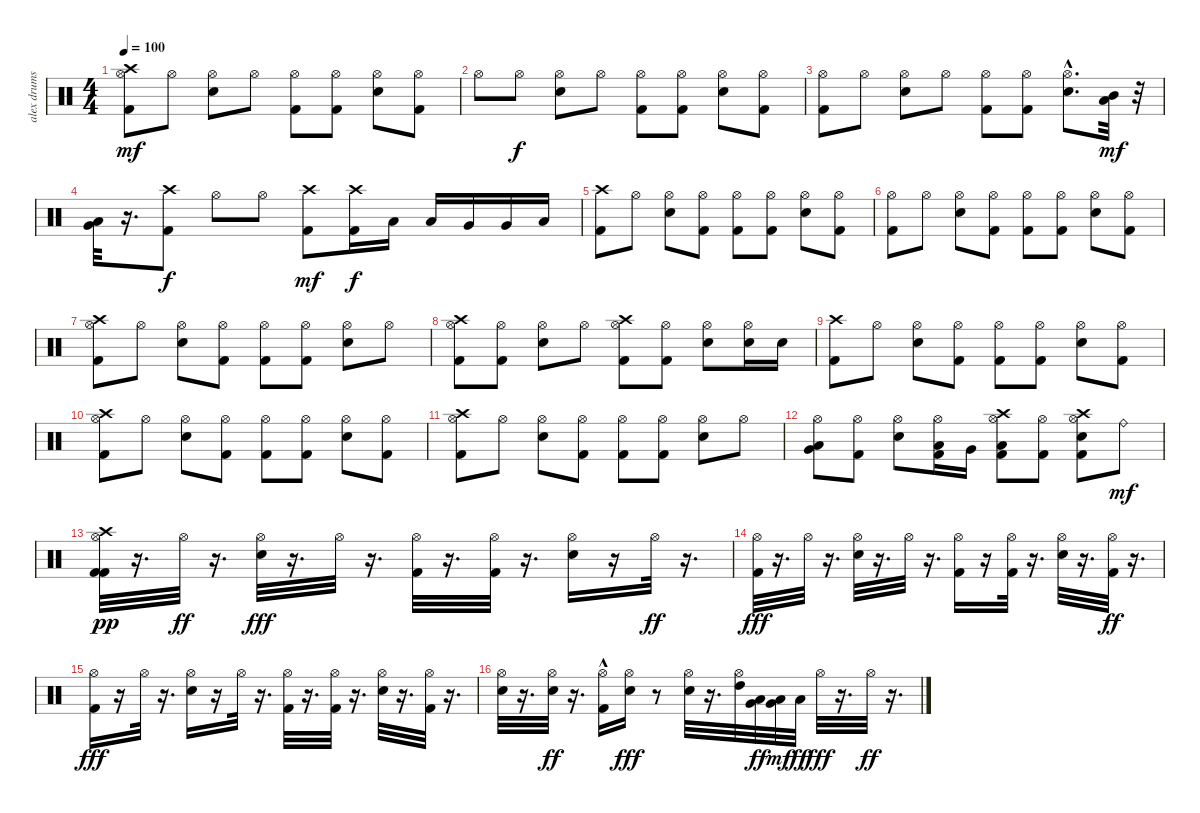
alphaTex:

\track ("alex drums" "alex drums") {instrument percussion}
\staff {score}
\articulation defaults
\ts (4 4)
\tempo 100
\clef neutral
\ks c
("Crash high (hit)" "Hi-Hat (open)" "Kick (hit) 2").8{dy mf} "Hi-Hat (open)".8 ("Hi-Hat (open)" "Snare (hit) 2").8 "Hi-Hat (open)".8 ("Hi-Hat (open)" "Kick (hit) 2").8 ("Hi-Hat (open)" "Kick (hit) 2").8 ("Hi-Hat (open)" "Snare (hit) 2").8 ("Kick (hit) 2" "Hi-Hat (open)").8 |
"Hi-Hat (open)".8 "Hi-Hat (open)".8{dy f} ("Electric Snare (hit)" "Hi-Hat (open)").8 "Hi-Hat (open)".8 ("Kick (hit) 2" "Hi-Hat (open)").8 ("Kick (hit) 2" "Hi-Hat (open)").8 ("Electric Snare (hit)" "Hi-Hat (open)").8 ("Kick (hit) 2" "Hi-Hat (open)").8 |
("Kick (hit) 2" "Hi-Hat (open)").8 "Hi-Hat (open)".8 ("Electric Snare (hit)" "Hi-Hat (open)").8 "Hi-Hat (open)".8 ("Kick (hit) 2" "Hi-Hat (open)").8 ("Kick (hit) 2" "Hi-Hat (open)").8 ("Electric Snare (hit)"{hac} "Hi-Hat (open)"{hac}).8{d} ("Low Tom (hit)" "Mid Tom (hit)").32{dy mf} r.32 |
("Low Floor Tom (hit)" "Very Low Tom (hit)").32 r.16{d} ("Kick (hit) 2" "Crash high (hit)").8{dy f} "Hi-Hat (open)".8 "Hi-Hat (open)".8 ("Kick (hit) 2" "Crash high (hit)").8{dy mf} ("Kick (hit) 2" "Crash high (hit)").16{dy f} "Low Tom (hit)".16 "Low Tom (hit)".16 "Very Low Tom (hit)".16 "Very Low Tom (hit)".16 "Low Floor Tom (hit)".16 |
("Kick (hit) 2" "Crash high (hit)").8 "Hi-Hat (open)".8 ("Electric Snare (hit)" "Hi-Hat (open)").8 ("Kick (hit) 2" "Hi-Hat (open)").8 ("Kick (hit) 2" "Hi-Hat (open)").8 ("Kick (hit) 2" "Hi-Hat (open)").8 ("Electric Snare (hit)" "Hi-Hat (open)").8 ("Kick (hit) 2" "Hi-Hat (open)").8 |
("Kick (hit) 2" "Hi-Hat (open)").8 "Hi-Hat (open)".8 ("Electric Snare (hit)" "Hi-Hat (open)").8 ("Kick (hit) 2" "Hi-Hat (open)").8 ("Kick (hit) 2" "Hi-Hat (open)").8 ("Kick (hit) 2" "Hi-Hat (open)").8 ("Electric Snare (hit)" "Hi-Hat (open)").8 ("Kick (hit) 2" "Hi-Hat (open)").8 |
("Kick (hit) 2" "Hi-Hat (open)" "Crash high (hit)").8 "Hi-Hat (open)".8 ("Electric Snare (hit)" "Hi-Hat (open)").8 ("Kick (hit) 2" "Hi-Hat (open)").8 ("Kick (hit) 2" "Hi-Hat (open)").8 ("Kick (hit) 2" "Hi-Hat (open)").8 ("Electric Snare (hit)" "Hi-Hat (open)").8 "Hi-Hat (open)".8 |
("Kick (hit) 2" "Hi-Hat (open)" "Crash high (hit)").8 ("Kick (hit) 2" "Hi-Hat (open)").8 ("Electric Snare (hit)" "Hi-Hat (open)").8 "Hi-Hat (open)".8 ("Kick (hit) 2" "Hi-Hat (open)" "Crash high (hit)").8 ("Kick (hit) 2" "Hi-Hat (open)").8 ("Electric Snare (hit)" "Hi-Hat (open)").8 ("Electric Snare (hit)" "Hi-Hat (open)").16 "Electric Snare (hit)".16 |
("Kick (hit) 2" "Crash high (hit)").8 "Hi-Hat (open)".8 ("Electric Snare (hit)" "Hi-Hat (open)").8 ("Kick (hit) 2" "Hi-Hat (open)").8 ("Kick (hit) 2" "Hi-Hat (open)").8 ("Kick (hit) 2" "Hi-Hat (open)").8 ("Electric Snare (hit)" "Hi-Hat (open)").8 ("Kick (hit) 2" "Hi-Hat (open)").8 |
("Kick (hit) 2" "Hi-Hat (open)" "Crash high (hit)").8 "Hi-Hat (open)".8 ("Electric Snare (hit)" "Hi-Hat (open)").8 ("Kick (hit) 2" "Hi-Hat (open)").8 ("Kick (hit) 2" "Hi-Hat (open)").8 ("Kick (hit) 2" "Hi-Hat (open)").8 ("Electric Snare (hit)" "Hi-Hat (open)").8 ("Kick (hit) 2" "Hi-Hat (open)").8 |
("Kick (hit) 2" "Hi-Hat (open)" "Crash high (hit)").8 "Hi-Hat (open)".8 ("Electric Snare (hit)" "Hi-Hat (open)").8 ("Kick (hit) 2" "Hi-Hat (open)").8 ("Kick (hit) 2" "Hi-Hat (open)").8 ("Kick (hit) 2" "Hi-Hat (open)").8 ("Electric Snare (hit)" "Hi-Hat (open)").8 "Hi-Hat (open)".8 |
("Low Tom (hit)" "Very Low Tom (hit)" "Hi-Hat (open)").8 ("Kick (hit) 2" "Hi-Hat (open)").8 ("Electric Snare (hit)" "Hi-Hat (open)").8 ("Kick (hit) 2" "Low Tom (hit)" "Hi-Hat (open)").16 "Very Low Tom (hit)".16 ("Kick (hit) 2" "Low Floor Tom (hit)" "Hi-Hat (open)" "Crash high (hit)").8 ("Kick (hit) 2" "Hi-Hat (open)").8 ("Kick (hit) 2" "Electric Snare (hit)" "Hi-Hat (open)" "Crash high (hit)").8 "Ride (bell)".8{dy mf} |
("Kick (hit) 2" "Hi-Hat (open)" "Crash high (hit)" "Kick (hit) 2").32{dy pp} r.16{d} "Hi-Hat (open)".32{dy ff} r.16{d} ("Electric Snare (hit)" "Hi-Hat (open)").32{dy fff} r.16{d} "Hi-Hat (open)".32 r.16{d} ("Hi-Hat (open)" "Kick (hit) 2").32 r.16{d} ("Hi-Hat (open)" "Kick (hit) 2").32 r.16{d} ("Electric Snare (hit)" "Hi-Hat (open)").16 r.16 "Hi-Hat (open)".32{dy ff} r.16{d} |
("Kick (hit) 2" "Hi-Hat (open)").32{dy fff} r.16{d} "Hi-Hat (open)".32 r.16{d} ("Hi-Hat (open)" "Electric Snare (hit)").32 r.16{d} "Hi-Hat (open)".32 r.16{d} ("Kick (hit) 2" "Hi-Hat (open)").16 r.16 ("Hi-Hat (open)" "Kick (hit) 2").32 r.16{d} ("Hi-Hat (open)" "Electric Snare (hit)").32 r.16{d} ("Kick (hit) 2" "Hi-Hat (open)").32{dy ff} r.16{d} |
("Hi-Hat (open)" "Kick (hit) 2").16{dy fff} r.16 "Hi-Hat (open)".32 r.16{d} ("Hi-Hat (open)" "Electric Snare (hit)").16 r.16 "Hi-Hat (open)".32 r.16{d} ("Hi-Hat (open)" "Kick (hit) 2").32 r.16{d} ("Hi-Hat (open)" "Kick (hit) 2").32 r.16{d} ("Hi-Hat (open)" "Electric Snare (hit)").32 r.16{d} ("Hi-Hat (open)" "Kick (hit) 2").32 r.16{d} |
("Hi-Hat (open)" "Electric Snare (hit)").32 r.16{d} ("Hi-Hat (open)" "Electric Snare (hit)").32{dy ff} r.16{d} ("Hi-Hat (open)" "Kick (hit) 2"{hac}).16 ("Hi-Hat (open)" "Electric Snare (hit)").16{dy fff} r.8 ("Electric Snare (hit)" "Hi-Hat (open)").32 r.16{d} ("High Tom (hit)" "Hi-Hat (open)").32 ("Very Low Tom (hit)" "Low Tom (hit)").32{dy ff} ("Very Low Tom (hit)" "Low Tom (hit)").32{dy mf} "Low Floor Tom (hit)".32{dy ff} "Hi-Hat (open)".32{dy fff} r.16{d} "Hi-Hat (open)".32{dy ff} r.16{d}
